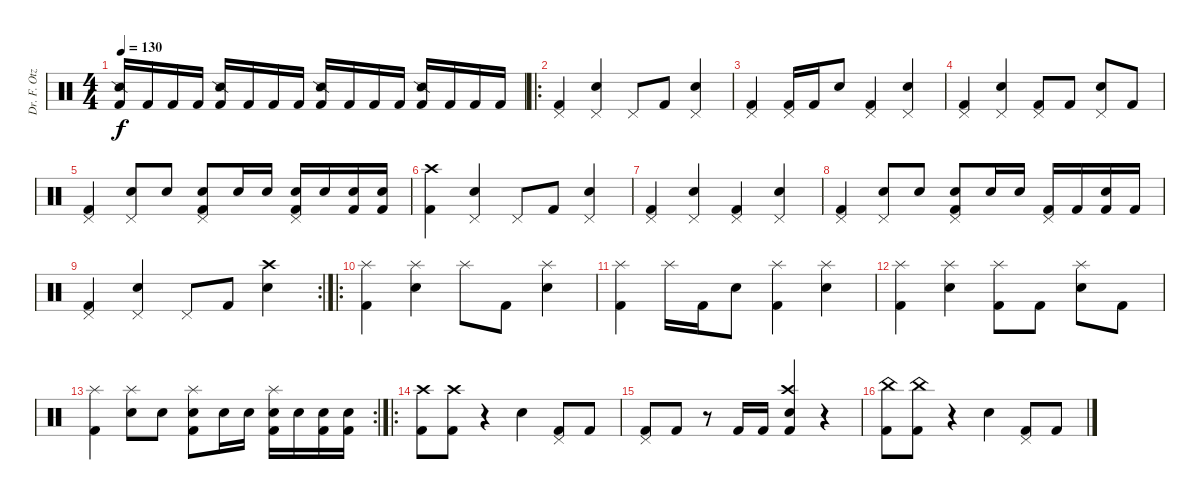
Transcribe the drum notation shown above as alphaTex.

\track ("Dr. F. Otze" "Dr. F. Otz") {instrument percussion}
\staff {score}
\articulation defaults
\ts (4 4)
\tempo 130
\clef neutral
\ks c
("Snare (side stick) 2" "Kick (hit) 2").16{dy f} "Kick (hit) 2".16 "Kick (hit) 2".16 "Kick (hit) 2".16 ("Snare (side stick) 2" "Kick (hit) 2").16 "Kick (hit) 2".16 "Kick (hit) 2".16 "Kick (hit) 2".16 ("Snare (side stick) 2" "Kick (hit) 2").16 "Kick (hit) 2".16 "Kick (hit) 2".16 "Kick (hit) 2".16 ("Snare (side stick) 2" "Kick (hit) 2").16 "Kick (hit) 2".16 "Kick (hit) 2".16 "Kick (hit) 2".16 |
\ro
("Pedal Hi-Hat (hit)" "Kick (hit) 2").4 ("Pedal Hi-Hat (hit)" "Snare (hit) 2").4 "Pedal Hi-Hat (hit)".8 "Kick (hit) 2".8 ("Pedal Hi-Hat (hit)" "Snare (hit) 2").4 |
("Pedal Hi-Hat (hit)" "Kick (hit) 2").4 ("Pedal Hi-Hat (hit)" "Kick (hit) 2").16 "Kick (hit) 2".16 "Snare (hit) 2".8 ("Pedal Hi-Hat (hit)" "Kick (hit) 2").4 ("Pedal Hi-Hat (hit)" "Snare (hit) 2").4 |
("Pedal Hi-Hat (hit)" "Kick (hit) 2").4 ("Pedal Hi-Hat (hit)" "Snare (hit) 2").4 ("Pedal Hi-Hat (hit)" "Kick (hit) 2").8 "Kick (hit) 2".8 ("Pedal Hi-Hat (hit)" "Snare (hit) 2").8 "Kick (hit) 2".8 |
("Pedal Hi-Hat (hit)" "Kick (hit) 2").4 ("Pedal Hi-Hat (hit)" "Snare (hit) 2").8 "Snare (hit) 2".8 ("Pedal Hi-Hat (hit)" "Snare (hit) 2" "Kick (hit) 2").8 "Snare (hit) 2".16 "Snare (hit) 2".16 ("Pedal Hi-Hat (hit)" "Snare (hit) 2" "Kick (hit) 2").16 "Snare (hit) 2".16 ("Snare (hit) 2" "Kick (hit) 2").16 ("Snare (hit) 2" "Kick (hit) 2").16 |
("Crash high (hit)" "Kick (hit) 2").4 ("Pedal Hi-Hat (hit)" "Snare (hit) 2").4 "Pedal Hi-Hat (hit)".8 "Kick (hit) 2".8 ("Pedal Hi-Hat (hit)" "Snare (hit) 2").4 |
("Pedal Hi-Hat (hit)" "Kick (hit) 2").4 ("Pedal Hi-Hat (hit)" "Snare (hit) 2").4 ("Pedal Hi-Hat (hit)" "Kick (hit) 2").4 ("Pedal Hi-Hat (hit)" "Snare (hit) 2").4 |
("Pedal Hi-Hat (hit)" "Kick (hit) 2").4 ("Pedal Hi-Hat (hit)" "Snare (hit) 2").8 "Snare (hit) 2".8 ("Pedal Hi-Hat (hit)" "Snare (hit) 2" "Kick (hit) 2").8 "Snare (hit) 2".16 "Snare (hit) 2".16 ("Pedal Hi-Hat (hit)" "Kick (hit) 2").16 "Kick (hit) 2".16 ("Snare (hit) 2" "Kick (hit) 2").16 "Kick (hit) 2".16 |
\rc 2
("Pedal Hi-Hat (hit)" "Kick (hit) 2").4 ("Pedal Hi-Hat (hit)" "Snare (hit) 2").4 "Pedal Hi-Hat (hit)".8 "Kick (hit) 2".8 ("Crash high (hit)" "Snare (hit) 2").4 |
\ro
("Splash (hit)" "Kick (hit) 2").4 ("Splash (hit)" "Snare (hit) 2").4 "Splash (hit)".8 "Kick (hit) 2".8 ("Splash (hit)" "Snare (hit) 2").4 |
("Splash (hit)" "Kick (hit) 2").4 "Splash (hit)".16 "Kick (hit) 2".16 "Snare (hit) 2".8 ("Splash (hit)" "Kick (hit) 2").4 ("Splash (hit)" "Snare (hit) 2").4 |
("Splash (hit)" "Kick (hit) 2").4 ("Splash (hit)" "Snare (hit) 2").4 ("Splash (hit)" "Kick (hit) 2").8 "Kick (hit) 2".8 ("Splash (hit)" "Snare (hit) 2").8 "Kick (hit) 2".8 |
\rc 2
("Splash (hit)" "Kick (hit) 2").4 ("Splash (hit)" "Snare (hit) 2").8 "Snare (hit) 2".8 ("Splash (hit)" "Snare (hit) 2" "Kick (hit) 2").8 "Snare (hit) 2".16 "Snare (hit) 2".16 ("Splash (hit)" "Snare (hit) 2" "Kick (hit) 2").16 "Snare (hit) 2".16 ("Snare (hit) 2" "Kick (hit) 2").16 ("Snare (hit) 2" "Kick (hit) 2").16 |
\ro
("Crash high (hit)" "Kick (hit) 2").8 ("Crash high (hit)" "Kick (hit) 2").8 r.4 "Electric Snare (hit)".4 ("Pedal Hi-Hat (hit)" "Kick (hit) 2").8 "Kick (hit) 2".8 |
("Pedal Hi-Hat (hit)" "Kick (hit) 2").8 "Kick (hit) 2".8 r.8 "Kick (hit) 2".16 "Kick (hit) 2".16 ("Crash high (hit)" "Electric Snare (hit)" "Kick (hit) 2").4 r.4 |
("China (hit)" "Kick (hit) 2").8 ("China (hit)" "Kick (hit) 2").8 r.4 "Electric Snare (hit)".4 ("Pedal Hi-Hat (hit)" "Kick (hit) 2").8 "Kick (hit) 2".8
